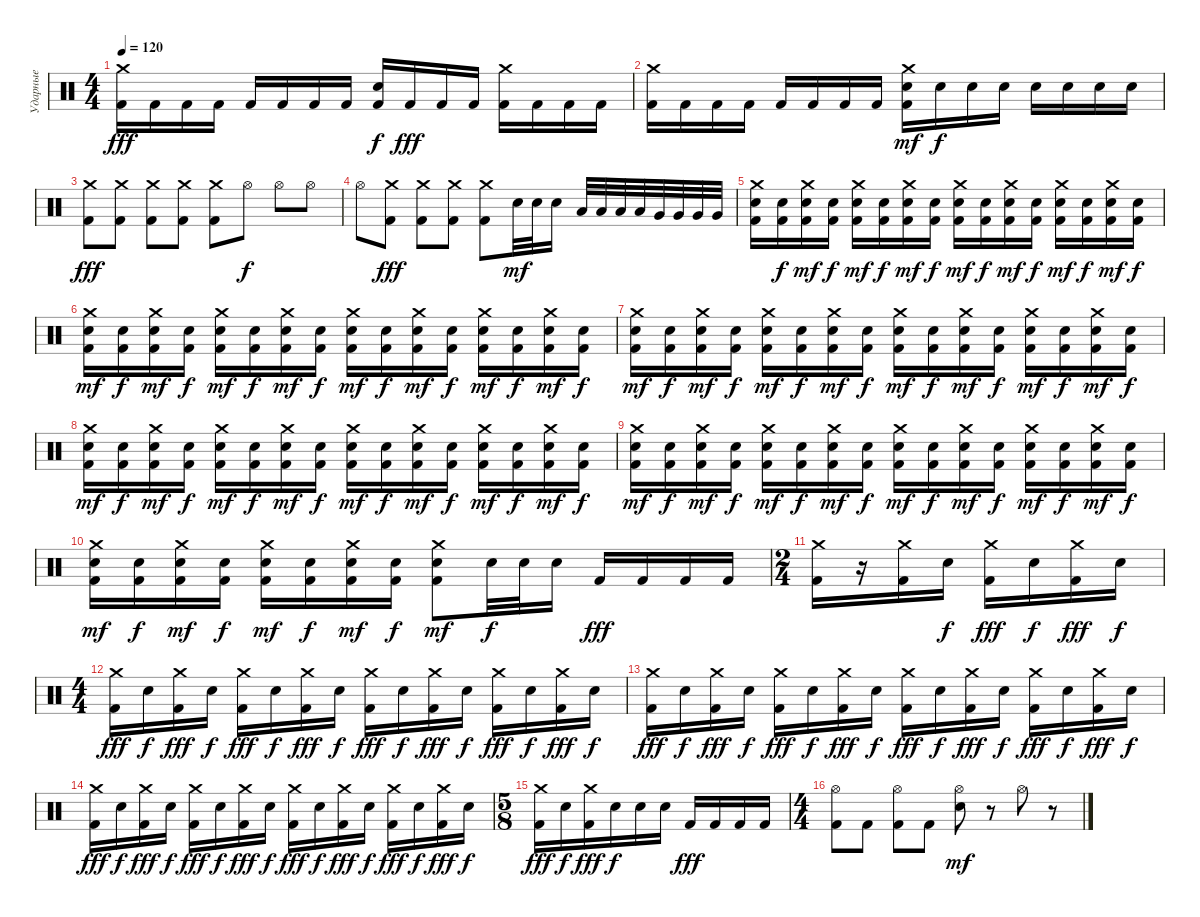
\track ("Ударные" "Ударные") {instrument percussion}
\staff {score}
\articulation defaults
\ts (4 4)
\tempo 120
\clef neutral
\ks c
("Crash medium (hit)" "Kick (hit) 2").16{dy fff} "Kick (hit) 2".16 "Kick (hit) 2".16 "Kick (hit) 2".16 "Kick (hit) 2".16 "Kick (hit) 2".16 "Kick (hit) 2".16 "Kick (hit) 2".16 ("Electric Snare (hit)" "Kick (hit) 2").16{dy f} "Kick (hit) 2".16{dy fff} "Kick (hit) 2".16 "Kick (hit) 2".16 ("Crash medium (hit)" "Kick (hit) 2").16 "Kick (hit) 2".16 "Kick (hit) 2".16 "Kick (hit) 2".16 |
("Crash medium (hit)" "Kick (hit) 2").16 "Kick (hit) 2".16 "Kick (hit) 2".16 "Kick (hit) 2".16 "Kick (hit) 2".16 "Kick (hit) 2".16 "Kick (hit) 2".16 "Kick (hit) 2".16 ("Crash medium (hit)" "Electric Snare (hit)" "Kick (hit) 2").16{dy mf} "Electric Snare (hit)".16{dy f} "Electric Snare (hit)".16 "Electric Snare (hit)".16 "Electric Snare (hit)".16 "Electric Snare (hit)".16 "Electric Snare (hit)".16 "Electric Snare (hit)".16 |
("Crash medium (hit)" "Kick (hit) 2").8{dy fff} ("Crash medium (hit)" "Kick (hit) 2").8 ("Crash medium (hit)" "Kick (hit) 2").8 ("Crash medium (hit)" "Kick (hit) 2").8 ("Crash medium (hit)" "Kick (hit) 2").8 "Hi-Hat (open)".8{dy f} "Hi-Hat (open)".8 "Hi-Hat (open)".8 |
"Hi-Hat (open)".8 ("Crash medium (hit)" "Kick (hit) 2").8{dy fff} ("Crash medium (hit)" "Kick (hit) 2").8 ("Crash medium (hit)" "Kick (hit) 2").8 ("Crash medium (hit)" "Kick (hit) 2").8 "Electric Snare (hit)".32{dy mf} "Electric Snare (hit)".32 "Electric Snare (hit)".16 "Low Tom (hit)".32 "Low Tom (hit)".32 "Low Tom (hit)".32 "Low Tom (hit)".32 "Very Low Tom (hit)".32 "Very Low Tom (hit)".32 "Very Low Tom (hit)".32 "Very Low Tom (hit)".32 |
("Crash medium (hit)" "Electric Snare (hit)" "Kick (hit) 2").16 ("Electric Snare (hit)" "Kick (hit) 2").16{dy f} ("Crash medium (hit)" "Electric Snare (hit)" "Kick (hit) 2").16{dy mf} ("Electric Snare (hit)" "Kick (hit) 2").16{dy f} ("Crash medium (hit)" "Electric Snare (hit)" "Kick (hit) 2").16{dy mf} ("Electric Snare (hit)" "Kick (hit) 2").16{dy f} ("Crash medium (hit)" "Electric Snare (hit)" "Kick (hit) 2").16{dy mf} ("Electric Snare (hit)" "Kick (hit) 2").16{dy f} ("Crash medium (hit)" "Electric Snare (hit)" "Kick (hit) 2").16{dy mf} ("Electric Snare (hit)" "Kick (hit) 2").16{dy f} ("Crash medium (hit)" "Electric Snare (hit)" "Kick (hit) 2").16{dy mf} ("Electric Snare (hit)" "Kick (hit) 2").16{dy f} ("Crash medium (hit)" "Electric Snare (hit)" "Kick (hit) 2").16{dy mf} ("Electric Snare (hit)" "Kick (hit) 2").16{dy f} ("Crash medium (hit)" "Electric Snare (hit)" "Kick (hit) 2").16{dy mf} ("Electric Snare (hit)" "Kick (hit) 2").16{dy f} |
("Crash medium (hit)" "Electric Snare (hit)" "Kick (hit) 2").16{dy mf} ("Electric Snare (hit)" "Kick (hit) 2").16{dy f} ("Crash medium (hit)" "Electric Snare (hit)" "Kick (hit) 2").16{dy mf} ("Electric Snare (hit)" "Kick (hit) 2").16{dy f} ("Crash medium (hit)" "Electric Snare (hit)" "Kick (hit) 2").16{dy mf} ("Electric Snare (hit)" "Kick (hit) 2").16{dy f} ("Crash medium (hit)" "Electric Snare (hit)" "Kick (hit) 2").16{dy mf} ("Electric Snare (hit)" "Kick (hit) 2").16{dy f} ("Crash medium (hit)" "Electric Snare (hit)" "Kick (hit) 2").16{dy mf} ("Electric Snare (hit)" "Kick (hit) 2").16{dy f} ("Crash medium (hit)" "Electric Snare (hit)" "Kick (hit) 2").16{dy mf} ("Electric Snare (hit)" "Kick (hit) 2").16{dy f} ("Crash medium (hit)" "Electric Snare (hit)" "Kick (hit) 2").16{dy mf} ("Electric Snare (hit)" "Kick (hit) 2").16{dy f} ("Crash medium (hit)" "Electric Snare (hit)" "Kick (hit) 2").16{dy mf} ("Electric Snare (hit)" "Kick (hit) 2").16{dy f} |
("Crash medium (hit)" "Electric Snare (hit)" "Kick (hit) 2").16{dy mf} ("Electric Snare (hit)" "Kick (hit) 2").16{dy f} ("Crash medium (hit)" "Electric Snare (hit)" "Kick (hit) 2").16{dy mf} ("Electric Snare (hit)" "Kick (hit) 2").16{dy f} ("Crash medium (hit)" "Electric Snare (hit)" "Kick (hit) 2").16{dy mf} ("Electric Snare (hit)" "Kick (hit) 2").16{dy f} ("Crash medium (hit)" "Electric Snare (hit)" "Kick (hit) 2").16{dy mf} ("Electric Snare (hit)" "Kick (hit) 2").16{dy f} ("Crash medium (hit)" "Electric Snare (hit)" "Kick (hit) 2").16{dy mf} ("Electric Snare (hit)" "Kick (hit) 2").16{dy f} ("Crash medium (hit)" "Electric Snare (hit)" "Kick (hit) 2").16{dy mf} ("Electric Snare (hit)" "Kick (hit) 2").16{dy f} ("Crash medium (hit)" "Electric Snare (hit)" "Kick (hit) 2").16{dy mf} ("Electric Snare (hit)" "Kick (hit) 2").16{dy f} ("Crash medium (hit)" "Electric Snare (hit)" "Kick (hit) 2").16{dy mf} ("Electric Snare (hit)" "Kick (hit) 2").16{dy f} |
("Crash medium (hit)" "Electric Snare (hit)" "Kick (hit) 2").16{dy mf} ("Electric Snare (hit)" "Kick (hit) 2").16{dy f} ("Crash medium (hit)" "Electric Snare (hit)" "Kick (hit) 2").16{dy mf} ("Electric Snare (hit)" "Kick (hit) 2").16{dy f} ("Crash medium (hit)" "Electric Snare (hit)" "Kick (hit) 2").16{dy mf} ("Electric Snare (hit)" "Kick (hit) 2").16{dy f} ("Crash medium (hit)" "Electric Snare (hit)" "Kick (hit) 2").16{dy mf} ("Electric Snare (hit)" "Kick (hit) 2").16{dy f} ("Crash medium (hit)" "Electric Snare (hit)" "Kick (hit) 2").16{dy mf} ("Electric Snare (hit)" "Kick (hit) 2").16{dy f} ("Crash medium (hit)" "Electric Snare (hit)" "Kick (hit) 2").16{dy mf} ("Electric Snare (hit)" "Kick (hit) 2").16{dy f} ("Crash medium (hit)" "Electric Snare (hit)" "Kick (hit) 2").16{dy mf} ("Electric Snare (hit)" "Kick (hit) 2").16{dy f} ("Crash medium (hit)" "Electric Snare (hit)" "Kick (hit) 2").16{dy mf} ("Electric Snare (hit)" "Kick (hit) 2").16{dy f} |
("Crash medium (hit)" "Electric Snare (hit)" "Kick (hit) 2").16{dy mf} ("Electric Snare (hit)" "Kick (hit) 2").16{dy f} ("Crash medium (hit)" "Electric Snare (hit)" "Kick (hit) 2").16{dy mf} ("Electric Snare (hit)" "Kick (hit) 2").16{dy f} ("Crash medium (hit)" "Electric Snare (hit)" "Kick (hit) 2").16{dy mf} ("Electric Snare (hit)" "Kick (hit) 2").16{dy f} ("Crash medium (hit)" "Electric Snare (hit)" "Kick (hit) 2").16{dy mf} ("Electric Snare (hit)" "Kick (hit) 2").16{dy f} ("Crash medium (hit)" "Electric Snare (hit)" "Kick (hit) 2").16{dy mf} ("Electric Snare (hit)" "Kick (hit) 2").16{dy f} ("Crash medium (hit)" "Electric Snare (hit)" "Kick (hit) 2").16{dy mf} ("Electric Snare (hit)" "Kick (hit) 2").16{dy f} ("Crash medium (hit)" "Electric Snare (hit)" "Kick (hit) 2").16{dy mf} ("Electric Snare (hit)" "Kick (hit) 2").16{dy f} ("Crash medium (hit)" "Electric Snare (hit)" "Kick (hit) 2").16{dy mf} ("Electric Snare (hit)" "Kick (hit) 2").16{dy f} |
("Crash medium (hit)" "Electric Snare (hit)" "Kick (hit) 2").16{dy mf} ("Electric Snare (hit)" "Kick (hit) 2").16{dy f} ("Crash medium (hit)" "Electric Snare (hit)" "Kick (hit) 2").16{dy mf} ("Electric Snare (hit)" "Kick (hit) 2").16{dy f} ("Crash medium (hit)" "Electric Snare (hit)" "Kick (hit) 2").16{dy mf} ("Electric Snare (hit)" "Kick (hit) 2").16{dy f} ("Crash medium (hit)" "Electric Snare (hit)" "Kick (hit) 2").16{dy mf} ("Electric Snare (hit)" "Kick (hit) 2").16{dy f} ("Crash medium (hit)" "Electric Snare (hit)" "Kick (hit) 2").8{dy mf} "Electric Snare (hit)".32{dy f} "Electric Snare (hit)".32 "Electric Snare (hit)".16 "Kick (hit) 2".16{dy fff} "Kick (hit) 2".16 "Kick (hit) 2".16 "Kick (hit) 2".16 |
\ts (2 4)
("Crash medium (hit)" "Kick (hit) 2").16 r.16 ("Crash medium (hit)" "Kick (hit) 2").16 "Electric Snare (hit)".16{dy f} ("Crash medium (hit)" "Kick (hit) 2").16{dy fff} "Electric Snare (hit)".16{dy f} ("Crash medium (hit)" "Kick (hit) 2").16{dy fff} "Electric Snare (hit)".16{dy f} |
\ts (4 4)
("Crash medium (hit)" "Kick (hit) 2").16{dy fff} "Electric Snare (hit)".16{dy f} ("Crash medium (hit)" "Kick (hit) 2").16{dy fff} "Electric Snare (hit)".16{dy f} ("Crash medium (hit)" "Kick (hit) 2").16{dy fff} "Electric Snare (hit)".16{dy f} ("Crash medium (hit)" "Kick (hit) 2").16{dy fff} "Electric Snare (hit)".16{dy f} ("Crash medium (hit)" "Kick (hit) 2").16{dy fff} "Electric Snare (hit)".16{dy f} ("Crash medium (hit)" "Kick (hit) 2").16{dy fff} "Electric Snare (hit)".16{dy f} ("Crash medium (hit)" "Kick (hit) 2").16{dy fff} "Electric Snare (hit)".16{dy f} ("Crash medium (hit)" "Kick (hit) 2").16{dy fff} "Electric Snare (hit)".16{dy f} |
("Crash medium (hit)" "Kick (hit) 2").16{dy fff} "Electric Snare (hit)".16{dy f} ("Crash medium (hit)" "Kick (hit) 2").16{dy fff} "Electric Snare (hit)".16{dy f} ("Crash medium (hit)" "Kick (hit) 2").16{dy fff} "Electric Snare (hit)".16{dy f} ("Crash medium (hit)" "Kick (hit) 2").16{dy fff} "Electric Snare (hit)".16{dy f} ("Crash medium (hit)" "Kick (hit) 2").16{dy fff} "Electric Snare (hit)".16{dy f} ("Crash medium (hit)" "Kick (hit) 2").16{dy fff} "Electric Snare (hit)".16{dy f} ("Crash medium (hit)" "Kick (hit) 2").16{dy fff} "Electric Snare (hit)".16{dy f} ("Crash medium (hit)" "Kick (hit) 2").16{dy fff} "Electric Snare (hit)".16{dy f} |
("Crash medium (hit)" "Kick (hit) 2").16{dy fff} "Electric Snare (hit)".16{dy f} ("Crash medium (hit)" "Kick (hit) 2").16{dy fff} "Electric Snare (hit)".16{dy f} ("Crash medium (hit)" "Kick (hit) 2").16{dy fff} "Electric Snare (hit)".16{dy f} ("Crash medium (hit)" "Kick (hit) 2").16{dy fff} "Electric Snare (hit)".16{dy f} ("Crash medium (hit)" "Kick (hit) 2").16{dy fff} "Electric Snare (hit)".16{dy f} ("Crash medium (hit)" "Kick (hit) 2").16{dy fff} "Electric Snare (hit)".16{dy f} ("Crash medium (hit)" "Kick (hit) 2").16{dy fff} "Electric Snare (hit)".16{dy f} ("Crash medium (hit)" "Kick (hit) 2").16{dy fff} "Electric Snare (hit)".16{dy f} |
\ts (5 8)
("Crash medium (hit)" "Kick (hit) 2").16{dy fff} "Electric Snare (hit)".16{dy f} ("Crash medium (hit)" "Kick (hit) 2").16{dy fff} "Electric Snare (hit)".16{dy f} "Electric Snare (hit)".16 "Electric Snare (hit)".16 "Kick (hit) 2".16{dy fff} "Kick (hit) 2".16 "Kick (hit) 2".16 "Kick (hit) 2".16 |
\ts (4 4)
("Hi-Hat (open)" "Kick (hit) 2").8 "Kick (hit) 2".8 ("Hi-Hat (open)" "Kick (hit) 2").8 "Kick (hit) 2".8 ("Hi-Hat (open)" "Electric Snare (hit)").8{dy mf} r.8 "Hi-Hat (open)".8 r.8
